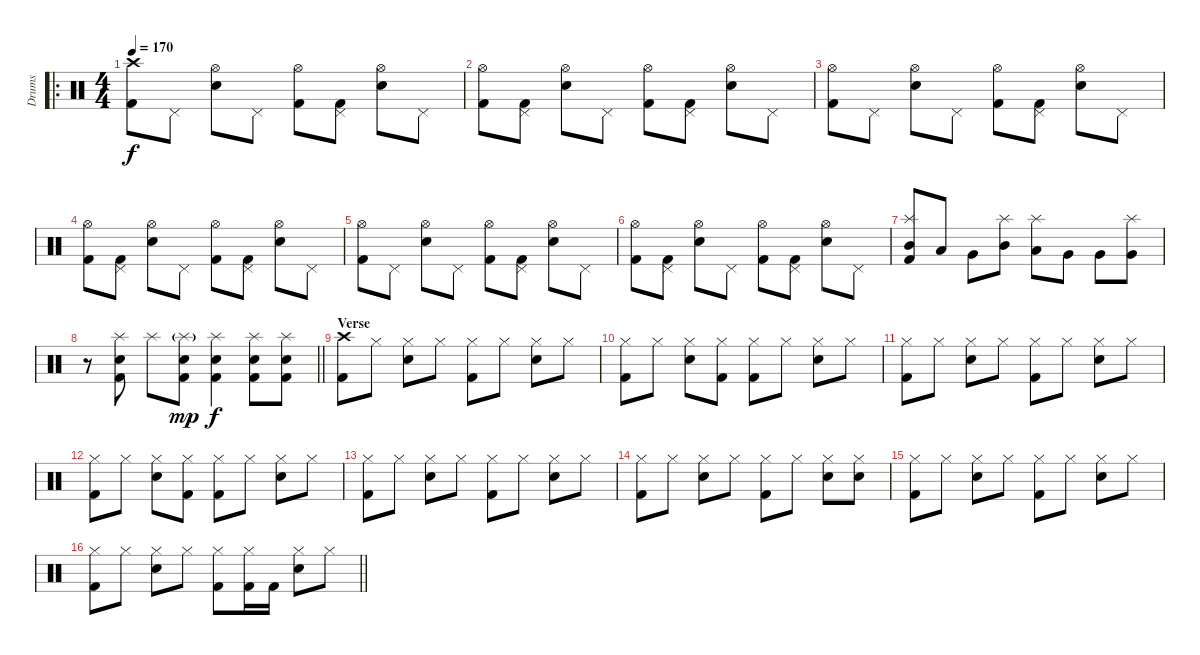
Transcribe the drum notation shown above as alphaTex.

\track ("Drums" "Drums") {instrument percussion}
\staff {score}
\articulation defaults
\ro
\ts (4 4)
\tempo 170
\clef neutral
\ks c
("Crash high (hit)" "Kick (hit) 2").8{dy f} "Pedal Hi-Hat (hit)".8 ("Hi-Hat (open)" "Snare (hit) 2").8 "Pedal Hi-Hat (hit)".8 ("Hi-Hat (open)" "Kick (hit) 2").8 ("Pedal Hi-Hat (hit)" "Kick (hit) 2").8 ("Hi-Hat (open)" "Snare (hit) 2").8 "Pedal Hi-Hat (hit)".8 |
("Hi-Hat (open)" "Kick (hit) 2").8 ("Pedal Hi-Hat (hit)" "Kick (hit) 2").8 ("Hi-Hat (open)" "Snare (hit) 2").8 "Pedal Hi-Hat (hit)".8 ("Hi-Hat (open)" "Kick (hit) 2").8 ("Pedal Hi-Hat (hit)" "Kick (hit) 2").8 ("Hi-Hat (open)" "Snare (hit) 2").8 "Pedal Hi-Hat (hit)".8 |
("Hi-Hat (open)" "Kick (hit) 2").8 "Pedal Hi-Hat (hit)".8 ("Hi-Hat (open)" "Snare (hit) 2").8 "Pedal Hi-Hat (hit)".8 ("Hi-Hat (open)" "Kick (hit) 2").8 ("Pedal Hi-Hat (hit)" "Kick (hit) 2").8 ("Hi-Hat (open)" "Snare (hit) 2").8 "Pedal Hi-Hat (hit)".8 |
("Hi-Hat (open)" "Kick (hit) 2").8 ("Pedal Hi-Hat (hit)" "Kick (hit) 2").8 ("Hi-Hat (open)" "Snare (hit) 2").8 "Pedal Hi-Hat (hit)".8 ("Hi-Hat (open)" "Kick (hit) 2").8 ("Pedal Hi-Hat (hit)" "Kick (hit) 2").8 ("Hi-Hat (open)" "Snare (hit) 2").8 "Pedal Hi-Hat (hit)".8 |
("Hi-Hat (open)" "Kick (hit) 2").8 "Pedal Hi-Hat (hit)".8 ("Hi-Hat (open)" "Snare (hit) 2").8 "Pedal Hi-Hat (hit)".8 ("Hi-Hat (open)" "Kick (hit) 2").8 ("Pedal Hi-Hat (hit)" "Kick (hit) 2").8 ("Hi-Hat (open)" "Snare (hit) 2").8 "Pedal Hi-Hat (hit)".8 |
("Hi-Hat (open)" "Kick (hit) 2").8 ("Pedal Hi-Hat (hit)" "Kick (hit) 2").8 ("Hi-Hat (open)" "Snare (hit) 2").8 "Pedal Hi-Hat (hit)".8 ("Hi-Hat (open)" "Kick (hit) 2").8 ("Pedal Hi-Hat (hit)" "Kick (hit) 2").8 ("Hi-Hat (open)" "Snare (hit) 2").8 "Pedal Hi-Hat (hit)".8 |
("Splash (hit)" "Mid Tom (hit)" "Kick (hit) 2").8 "Low Tom (hit)".8 "Very Low Tom (hit)".8 ("Splash (hit)" "Mid Tom (hit)").8 ("Splash (hit)" "Low Tom (hit)").8 "Very Low Tom (hit)".8 "Very Low Tom (hit)".8 ("Splash (hit)" "Very Low Tom (hit)").8 |
\barLineRight lightlight
r.8 ("Splash (hit)" "Snare (hit) 2" "Kick (hit) 2").8 "Splash (hit)".8 ("Splash (hit)"{g} "Snare (hit) 2" "Kick (hit) 2").8{dy mp} ("Splash (hit)" "Snare (hit) 2" "Kick (hit) 2").4{dy f} ("Splash (hit)" "Snare (hit) 2" "Kick (hit) 2").8 ("Splash (hit)" "Snare (hit) 2" "Kick (hit) 2").8 |
\section ("" "Verse")
("Crash high (hit)" "Kick (hit) 2").8 "Hi-Hat (closed)".8 ("Hi-Hat (closed)" "Snare (hit) 2").8 "Hi-Hat (closed)".8 ("Hi-Hat (closed)" "Kick (hit) 2").8 "Hi-Hat (closed)".8 ("Hi-Hat (closed)" "Snare (hit) 2").8 "Hi-Hat (closed)".8 |
("Hi-Hat (closed)" "Kick (hit) 2").8 "Hi-Hat (closed)".8 ("Hi-Hat (closed)" "Snare (hit) 2").8 ("Hi-Hat (closed)" "Kick (hit) 2").8 ("Hi-Hat (closed)" "Kick (hit) 2").8 "Hi-Hat (closed)".8 ("Hi-Hat (closed)" "Snare (hit) 2").8 "Hi-Hat (closed)".8 |
("Hi-Hat (closed)" "Kick (hit) 2").8 "Hi-Hat (closed)".8 ("Hi-Hat (closed)" "Snare (hit) 2").8 "Hi-Hat (closed)".8 ("Hi-Hat (closed)" "Kick (hit) 2").8 "Hi-Hat (closed)".8 ("Hi-Hat (closed)" "Snare (hit) 2").8 "Hi-Hat (closed)".8 |
("Hi-Hat (closed)" "Kick (hit) 2").8 "Hi-Hat (closed)".8 ("Hi-Hat (closed)" "Snare (hit) 2").8 ("Hi-Hat (closed)" "Kick (hit) 2").8 ("Hi-Hat (closed)" "Kick (hit) 2").8 "Hi-Hat (closed)".8 ("Hi-Hat (closed)" "Snare (hit) 2").8 "Hi-Hat (closed)".8 |
("Hi-Hat (closed)" "Kick (hit) 2").8 "Hi-Hat (closed)".8 ("Hi-Hat (closed)" "Snare (hit) 2").8 "Hi-Hat (closed)".8 ("Hi-Hat (closed)" "Kick (hit) 2").8 "Hi-Hat (closed)".8 ("Hi-Hat (closed)" "Snare (hit) 2").8 "Hi-Hat (closed)".8 |
("Hi-Hat (closed)" "Kick (hit) 2").8 "Hi-Hat (closed)".8 ("Hi-Hat (closed)" "Snare (hit) 2").8 "Hi-Hat (closed)".8 ("Hi-Hat (closed)" "Kick (hit) 2").8 "Hi-Hat (closed)".8 ("Hi-Hat (closed)" "Snare (hit) 2").8 ("Hi-Hat (closed)" "Snare (hit) 2").8 |
("Hi-Hat (closed)" "Kick (hit) 2").8 "Hi-Hat (closed)".8 ("Hi-Hat (closed)" "Snare (hit) 2").8 "Hi-Hat (closed)".8 ("Hi-Hat (closed)" "Kick (hit) 2").8 "Hi-Hat (closed)".8 ("Hi-Hat (closed)" "Snare (hit) 2").8 "Hi-Hat (closed)".8 |
\barLineRight lightlight
("Hi-Hat (closed)" "Kick (hit) 2").8 "Hi-Hat (closed)".8 ("Hi-Hat (closed)" "Snare (hit) 2").8 "Hi-Hat (closed)".8 ("Hi-Hat (closed)" "Kick (hit) 2").8 ("Hi-Hat (closed)" "Kick (hit) 2").16 "Kick (hit) 2".16 ("Hi-Hat (closed)" "Snare (hit) 2").8 "Hi-Hat (closed)".8
